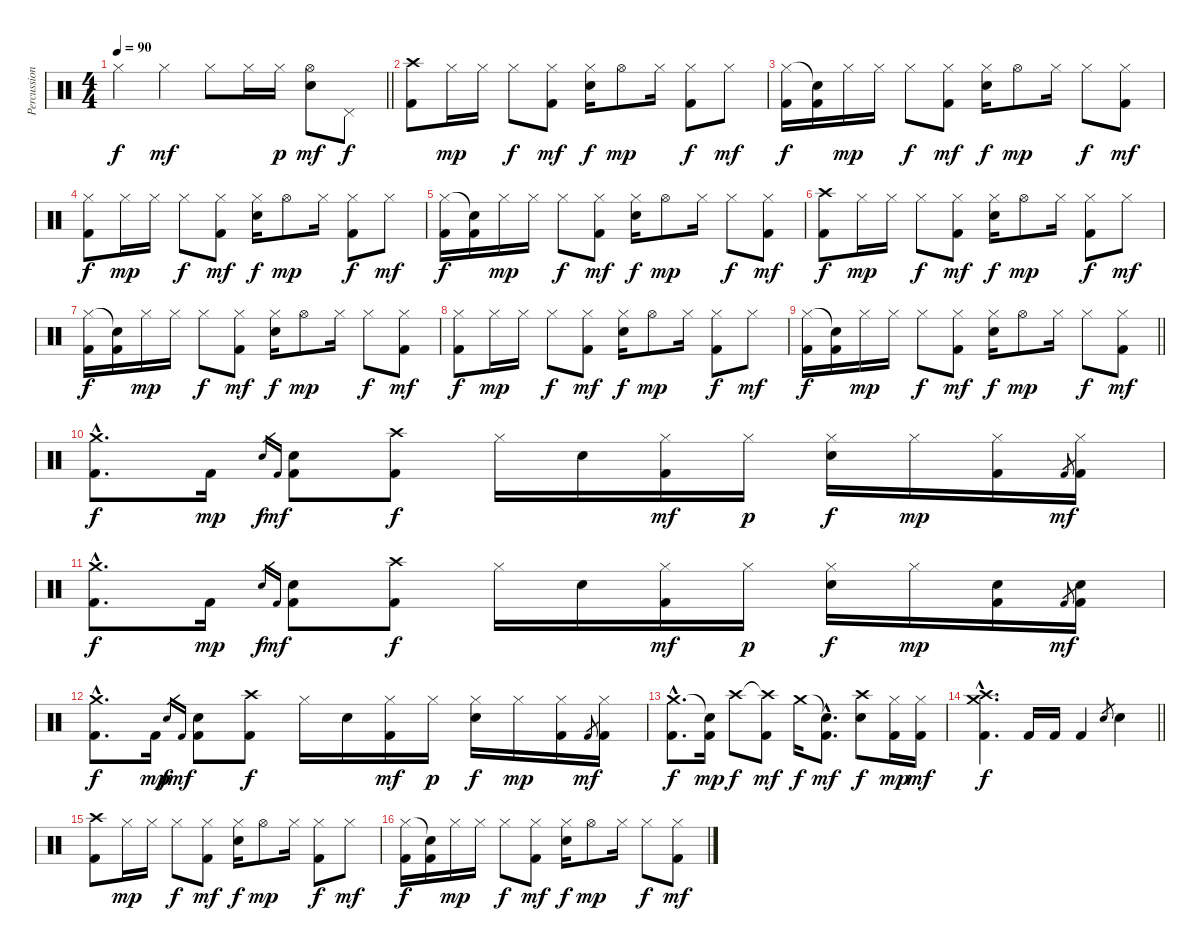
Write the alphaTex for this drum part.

\track ("Percussions" "Percussion") {instrument percussion}
\staff {score}
\articulation defaults
\ts (4 4)
\tempo 90
\clef neutral
\barLineRight lightlight
\ks c "Hi-Hat (closed)".4{dy f} "Hi-Hat (closed)".4{dy mf} "Hi-Hat (closed)".8 "Hi-Hat (closed)".16 "Hi-Hat (closed)".16{dy p}
("Hi-Hat (open)" "Snare (hit) 2").8{dy mf} "Pedal Hi-Hat (hit)".8{dy f} |
("Crash high (hit)" "Kick (hit) 2").8 "Hi-Hat (closed)".16{dy mp} "Hi-Hat (closed)".16 "Hi-Hat (closed)".8{dy f} ("Hi-Hat (closed)" "Kick (hit) 2").8{dy mf} ("Hi-Hat (closed)" "Snare (hit) 2").16{dy f} "Hi-Hat (open)".8{dy mp} "Hi-Hat (closed)".16 ("Hi-Hat (closed)" "Kick (hit) 2").8{dy f} "Hi-Hat (closed)".8{dy mf} |
("Hi-Hat (closed)" "Kick (hit) 2").16{dy f} ("Snare (hit)"{t} "Kick (hit) 2").16 "Hi-Hat (closed)".16{dy mp} "Hi-Hat (closed)".16 "Hi-Hat (closed)".8{dy f} ("Hi-Hat (closed)" "Kick (hit) 2").8{dy mf} ("Hi-Hat (closed)" "Snare (hit) 2").16{dy f} "Hi-Hat (open)".8{dy mp} "Hi-Hat (closed)".16 "Hi-Hat (closed)".8{dy f} ("Hi-Hat (closed)" "Kick (hit) 2").8{dy mf} |
("Hi-Hat (closed)" "Kick (hit) 2").8{dy f} "Hi-Hat (closed)".16{dy mp} "Hi-Hat (closed)".16 "Hi-Hat (closed)".8{dy f} ("Hi-Hat (closed)" "Kick (hit) 2").8{dy mf} ("Hi-Hat (closed)" "Snare (hit) 2").16{dy f} "Hi-Hat (open)".8{dy mp} "Hi-Hat (closed)".16 ("Hi-Hat (closed)" "Kick (hit) 2").8{dy f} "Hi-Hat (closed)".8{dy mf} |
("Hi-Hat (closed)" "Kick (hit) 2").16{dy f} ("Snare (hit)"{t} "Kick (hit) 2").16 "Hi-Hat (closed)".16{dy mp} "Hi-Hat (closed)".16 "Hi-Hat (closed)".8{dy f} ("Hi-Hat (closed)" "Kick (hit) 2").8{dy mf} ("Hi-Hat (closed)" "Snare (hit) 2").16{dy f} "Hi-Hat (open)".8{dy mp} "Hi-Hat (closed)".16 "Hi-Hat (closed)".8{dy f} ("Hi-Hat (closed)" "Kick (hit) 2").8{dy mf} |
("Crash high (hit)" "Kick (hit) 2").8{dy f} "Hi-Hat (closed)".16{dy mp} "Hi-Hat (closed)".16 "Hi-Hat (closed)".8{dy f} ("Hi-Hat (closed)" "Kick (hit) 2").8{dy mf} ("Hi-Hat (closed)" "Snare (hit) 2").16{dy f} "Hi-Hat (open)".8{dy mp} "Hi-Hat (closed)".16 ("Hi-Hat (closed)" "Kick (hit) 2").8{dy f} "Hi-Hat (closed)".8{dy mf} |
("Hi-Hat (closed)" "Kick (hit) 2").16{dy f} ("Snare (hit)"{t} "Kick (hit) 2").16 "Hi-Hat (closed)".16{dy mp} "Hi-Hat (closed)".16 "Hi-Hat (closed)".8{dy f} ("Hi-Hat (closed)" "Kick (hit) 2").8{dy mf} ("Hi-Hat (closed)" "Snare (hit) 2").16{dy f} "Hi-Hat (open)".8{dy mp} "Hi-Hat (closed)".16 "Hi-Hat (closed)".8{dy f} ("Hi-Hat (closed)" "Kick (hit) 2").8{dy mf} |
("Hi-Hat (closed)" "Kick (hit) 2").8{dy f} "Hi-Hat (closed)".16{dy mp} "Hi-Hat (closed)".16 "Hi-Hat (closed)".8{dy f} ("Hi-Hat (closed)" "Kick (hit) 2").8{dy mf} ("Hi-Hat (closed)" "Snare (hit) 2").16{dy f} "Hi-Hat (open)".8{dy mp} "Hi-Hat (closed)".16 ("Hi-Hat (closed)" "Kick (hit) 2").8{dy f} "Hi-Hat (closed)".8{dy mf} |
\barLineRight lightlight
("Hi-Hat (closed)" "Kick (hit) 2").16{dy f} ("Snare (hit)"{t} "Kick (hit) 2").16 "Hi-Hat (closed)".16{dy mp} "Hi-Hat (closed)".16 "Hi-Hat (closed)".8{dy f} ("Hi-Hat (closed)" "Kick (hit) 2").8{dy mf} ("Hi-Hat (closed)" "Snare (hit) 2").16{dy f} "Hi-Hat (open)".8{dy mp} "Hi-Hat (closed)".16 "Hi-Hat (closed)".8{dy f} ("Hi-Hat (closed)" "Kick (hit) 2").8{dy mf} |
("Crash medium (hit)"{hac} "Kick (hit) 2"{hac}).8{d dy f} "Kick (hit) 2".16{dy mp} "Snare (hit) 2".16{gr dy f} "Kick (hit) 2".16{gr dy mf} ("Snare (hit) 2" "Kick (hit) 2").8 ("Crash high (hit)" "Kick (hit) 2").8{dy f} "Hi-Hat (closed)".16 "Snare (hit) 2".16 ("Hi-Hat (closed)" "Kick (hit) 2").16{dy mf} "Hi-Hat (closed)".16{dy p} ("Hi-Hat (closed)" "Snare (hit) 2").16{dy f} "Hi-Hat (closed)".16{dy mp} ("Hi-Hat (closed)" "Kick (hit) 2").16 "Kick (hit) 2".8{gr dy mf} ("Hi-Hat (closed)" "Kick (hit) 2").16 |
("Crash medium (hit)"{hac} "Kick (hit) 2"{hac}).8{d dy f} "Kick (hit) 2".16{dy mp} "Snare (hit) 2".16{gr dy f} "Kick (hit) 2".16{gr dy mf} ("Snare (hit) 2" "Kick (hit) 2").8 ("Crash high (hit)" "Kick (hit) 2").8{dy f} "Hi-Hat (closed)".16 "Snare (hit) 2".16 ("Hi-Hat (closed)" "Kick (hit) 2").16{dy mf} "Hi-Hat (closed)".16{dy p} ("Hi-Hat (closed)" "Snare (hit) 2").16{dy f} "Hi-Hat (closed)".16{dy mp} ("Snare (hit) 2" "Kick (hit) 2").16 "Kick (hit) 2".8{gr dy mf} ("Snare (hit) 2" "Kick (hit) 2").16 |
("Crash medium (hit)"{hac} "Kick (hit) 2"{hac}).8{d dy f} "Kick (hit) 2".16{dy mp} "Snare (hit) 2".16{gr dy f} "Kick (hit) 2".16{gr dy mf} ("Snare (hit) 2" "Kick (hit) 2").8 ("Crash high (hit)" "Kick (hit) 2").8{dy f} "Hi-Hat (closed)".16 "Snare (hit) 2".16 ("Hi-Hat (closed)" "Kick (hit) 2").16{dy mf} "Hi-Hat (closed)".16{dy p} ("Hi-Hat (closed)" "Snare (hit) 2").16{dy f} "Hi-Hat (closed)".16{dy mp} ("Hi-Hat (closed)" "Kick (hit) 2").16 "Kick (hit) 2".8{gr dy mf} ("Hi-Hat (closed)" "Kick (hit) 2").16 |
("Crash medium (hit)"{hac} "Kick (hit) 2"{hac}).8{d dy f} ("Snare (hit)"{t} "Kick (hit) 2").16{dy mp} "Crash high (hit)".8{dy f} ("Crash high (hit)"{t} "Kick (hit) 2").8{dy mf} "Crash medium (hit)".16{dy f} ("Snare (hit)"{hac t} "Kick (hit) 2"{hac}).8{d dy mf} ("Crash high (hit)" "Snare (hit) 2").8{dy f} ("Hi-Hat (closed)" "Kick (hit) 2").16{dy mp} ("Hi-Hat (closed)" "Kick (hit) 2").16{dy mf} |
\barLineRight lightlight
("Crash medium (hit)"{hac} "Crash high (hit)"{hac} "Kick (hit) 2"{hac}).4{d dy f} "Kick (hit) 2".16 "Kick (hit) 2".16 "Kick (hit) 2".4 "Snare (hit) 2".8{gr} "Snare (hit) 2".4 |
("Crash high (hit)" "Kick (hit) 2").8 "Hi-Hat (closed)".16{dy mp} "Hi-Hat (closed)".16 "Hi-Hat (closed)".8{dy f} ("Hi-Hat (closed)" "Kick (hit) 2").8{dy mf} ("Hi-Hat (closed)" "Snare (hit) 2").16{dy f} "Hi-Hat (open)".8{dy mp} "Hi-Hat (closed)".16 ("Hi-Hat (closed)" "Kick (hit) 2").8{dy f} "Hi-Hat (closed)".8{dy mf} |
("Hi-Hat (closed)" "Kick (hit) 2").16{dy f} ("Snare (hit)"{t} "Kick (hit) 2").16 "Hi-Hat (closed)".16{dy mp} "Hi-Hat (closed)".16 "Hi-Hat (closed)".8{dy f} ("Hi-Hat (closed)" "Kick (hit) 2").8{dy mf} ("Hi-Hat (closed)" "Snare (hit) 2").16{dy f} "Hi-Hat (open)".8{dy mp} "Hi-Hat (closed)".16 "Hi-Hat (closed)".8{dy f} ("Hi-Hat (closed)" "Kick (hit) 2").8{dy mf}
